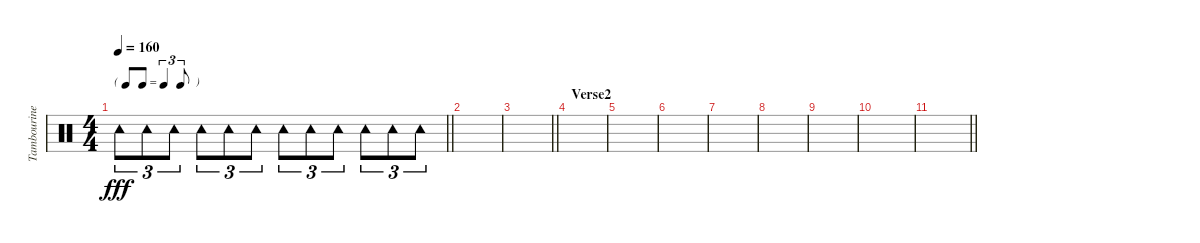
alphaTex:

\track ("Tambourine" "Tambourine") {instrument percussion}
\staff {score}
\articulation defaults
\ts (4 4)
\tf triplet8th
\tempo 160
\clef neutral
\barLineRight lightlight
\ks c "Tambourine (hit)".8{tu (3 2) dy fff} "Tambourine (hit)".8{tu (3 2)} "Tambourine (hit)".8{tu (3 2)} "Tambourine (hit)".8{tu (3 2)} "Tambourine (hit)".8{tu (3 2)} "Tambourine (hit)".8{tu (3 2)} "Tambourine (hit)".8{tu (3 2)} "Tambourine (hit)".8{tu (3 2)} "Tambourine (hit)".8{tu (3 2)} "Tambourine (hit)".8{tu (3 2)} "Tambourine (hit)".8{tu (3 2)} "Tambourine (hit)".8{tu (3 2)}
|
|
\barLineRight lightlight
|
\section ("" "Verse2")
|
|
|
|
|
|
|
\barLineRight lightlight
